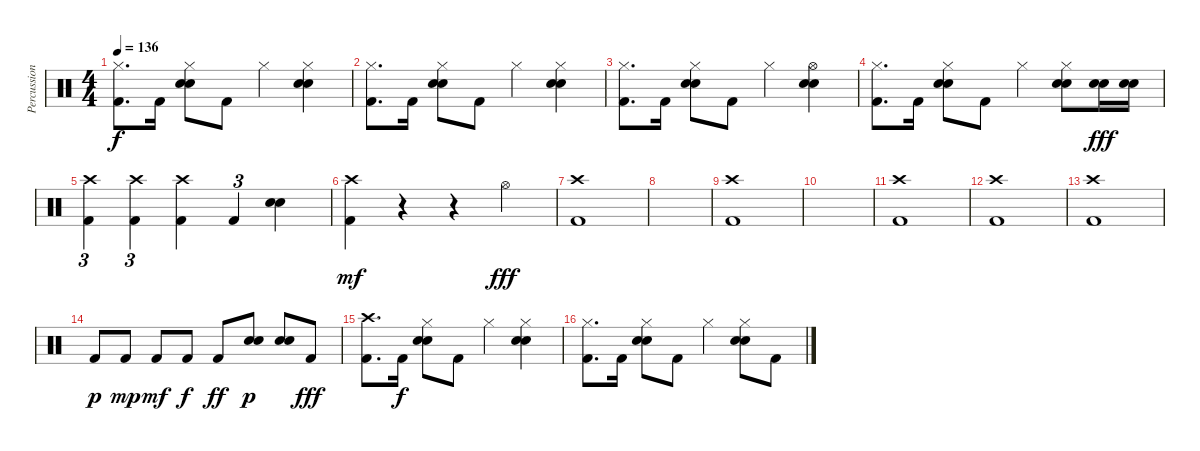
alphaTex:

\track ("Percussion" "Percussion") {instrument percussion}
\staff {score}
\articulation defaults
\ts (4 4)
\tempo 136
\clef neutral
\ks c
("Hi-Hat (closed)" "Kick (hit) 2").8{d dy f} "Kick (hit) 2".16 ("Hi-Hat (closed)" "Electric Snare (hit)" "Snare (hit) 2").8 "Kick (hit) 2".8 "Hi-Hat (closed)".4 ("Hi-Hat (closed)" "Electric Snare (hit)" "Snare (hit) 2").4 |
("Hi-Hat (closed)" "Kick (hit) 2").8{d} "Kick (hit) 2".16 ("Hi-Hat (closed)" "Electric Snare (hit)" "Snare (hit) 2").8 "Kick (hit) 2".8 "Hi-Hat (closed)".4 ("Hi-Hat (closed)" "Electric Snare (hit)" "Snare (hit) 2").4 |
("Hi-Hat (closed)" "Kick (hit) 2").8{d} "Kick (hit) 2".16 ("Hi-Hat (closed)" "Electric Snare (hit)" "Snare (hit) 2").8 "Kick (hit) 2".8 "Hi-Hat (closed)".4 ("Hi-Hat (open)" "Electric Snare (hit)" "Snare (hit) 2").4 |
("Hi-Hat (closed)" "Kick (hit) 2").8{d} "Kick (hit) 2".16 ("Hi-Hat (closed)" "Electric Snare (hit)" "Snare (hit) 2").8 "Kick (hit) 2".8 "Hi-Hat (closed)".4 ("Hi-Hat (closed)" "Electric Snare (hit)" "Snare (hit) 2").8 ("Electric Snare (hit)" "Snare (hit) 2").16{dy fff} ("Electric Snare (hit)" "Snare (hit) 2").16 |
("Crash high (hit)" "Kick (hit) 2").4{tu (3 2)} ("Crash high (hit)" "Kick (hit) 2").4{tu (3 2)} ("Crash high (hit)" "Kick (hit) 2").4 "Kick (hit) 2".4{tu (3 2)} ("Electric Snare (hit)" "Snare (hit) 2").4 |
("Crash high (hit)" "Kick (hit) 2").4{dy mf} r.4 r.4 "Hi-Hat (open)".4{dy fff} |
("Crash high (hit)" "Kick (hit) 2").1 |
|
("Crash high (hit)" "Kick (hit) 2").1 |
|
("Crash high (hit)" "Kick (hit) 2").1 |
("Crash high (hit)" "Kick (hit) 2").1 |
("Crash high (hit)" "Kick (hit) 2").1 |
"Kick (hit) 2".8{dy p} "Kick (hit) 2".8{dy mp} "Kick (hit) 2".8{dy mf} "Kick (hit) 2".8{dy f} "Kick (hit) 2".8{dy ff} ("Electric Snare (hit)" "Snare (hit) 2").8{dy p} ("Electric Snare (hit)" "Snare (hit) 2").8 "Kick (hit) 2".8{dy fff} |
("Crash high (hit)" "Kick (hit) 2").8{d} "Kick (hit) 2".16{dy f} ("Hi-Hat (closed)" "Electric Snare (hit)" "Snare (hit) 2").8 "Kick (hit) 2".8 "Hi-Hat (closed)".4 ("Hi-Hat (closed)" "Electric Snare (hit)" "Snare (hit) 2").4 |
("Hi-Hat (closed)" "Kick (hit) 2").8{d} "Kick (hit) 2".16 ("Hi-Hat (closed)" "Electric Snare (hit)" "Snare (hit) 2").8 "Kick (hit) 2".8 "Hi-Hat (closed)".4 ("Hi-Hat (closed)" "Electric Snare (hit)" "Snare (hit) 2").8 "Kick (hit) 2".8
